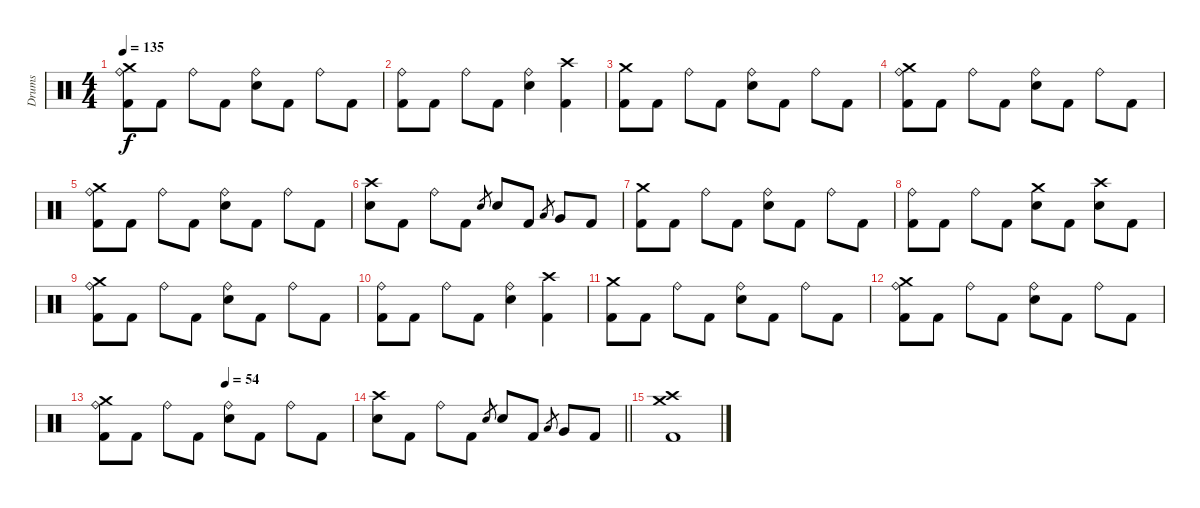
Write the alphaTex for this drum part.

\track ("Drums" "Drums") {instrument percussion}
\staff {score}
\articulation defaults
\ts (4 4)
\tempo 135
\clef neutral
\ks c
("Crash medium (hit)" "Ride (bell)" "Kick (hit) 2").8{dy f} "Kick (hit) 2".8 "Ride (bell)".8 "Kick (hit) 2".8 ("Ride (bell)" "Snare (hit) 2").8 "Kick (hit) 2".8 "Ride (bell)".8 "Kick (hit) 2".8 |
("Ride (bell)" "Kick (hit) 2").8 "Kick (hit) 2".8 "Ride (bell)".8 "Kick (hit) 2".8 ("Ride (bell)" "Snare (hit) 2").4 ("Crash high (hit)" "Kick (hit) 2").4 |
("Crash medium (hit)" "Kick (hit) 2").8 "Kick (hit) 2".8 "Ride (bell)".8 "Kick (hit) 2".8 ("Ride (bell)" "Snare (hit) 2").8 "Kick (hit) 2".8 "Ride (bell)".8 "Kick (hit) 2".8 |
("Crash medium (hit)" "Ride (bell)" "Kick (hit) 2").8 "Kick (hit) 2".8 "Ride (bell)".8 "Kick (hit) 2".8 ("Ride (bell)" "Snare (hit) 2").8 "Kick (hit) 2".8 "Ride (bell)".8 "Kick (hit) 2".8 |
("Crash medium (hit)" "Ride (bell)" "Kick (hit) 2").8 "Kick (hit) 2".8 "Ride (bell)".8 "Kick (hit) 2".8 ("Ride (bell)" "Snare (hit) 2").8 "Kick (hit) 2".8 "Ride (bell)".8 "Kick (hit) 2".8 |
("Crash high (hit)" "Snare (hit) 2").8 "Kick (hit) 2".8 "Ride (bell)".8 "Kick (hit) 2".8 "Snare (hit) 2".8{gr} "Snare (hit) 2".8 "Kick (hit) 2".8 "Low Tom (hit)".8{gr} "Very Low Tom (hit)".8 "Kick (hit) 2".8 |
("Crash medium (hit)" "Kick (hit) 2").8 "Kick (hit) 2".8 "Ride (bell)".8 "Kick (hit) 2".8 ("Ride (bell)" "Snare (hit) 2").8 "Kick (hit) 2".8 "Ride (bell)".8 "Kick (hit) 2".8 |
("Ride (bell)" "Kick (hit) 2").8 "Kick (hit) 2".8 "Ride (bell)".8 "Kick (hit) 2".8 ("Crash medium (hit)" "Snare (hit) 2").8 "Kick (hit) 2".8 ("Crash high (hit)" "Snare (hit) 2").8 "Kick (hit) 2".8 |
("Crash medium (hit)" "Ride (bell)" "Kick (hit) 2").8 "Kick (hit) 2".8 "Ride (bell)".8 "Kick (hit) 2".8 ("Ride (bell)" "Snare (hit) 2").8 "Kick (hit) 2".8 "Ride (bell)".8 "Kick (hit) 2".8 |
("Ride (bell)" "Kick (hit) 2").8 "Kick (hit) 2".8 "Ride (bell)".8 "Kick (hit) 2".8 ("Ride (bell)" "Snare (hit) 2").4 ("Crash high (hit)" "Kick (hit) 2").4 |
("Crash medium (hit)" "Kick (hit) 2").8 "Kick (hit) 2".8 "Ride (bell)".8 "Kick (hit) 2".8 ("Ride (bell)" "Snare (hit) 2").8 "Kick (hit) 2".8 "Ride (bell)".8 "Kick (hit) 2".8 |
("Crash medium (hit)" "Ride (bell)" "Kick (hit) 2").8 "Kick (hit) 2".8 "Ride (bell)".8 "Kick (hit) 2".8 ("Ride (bell)" "Snare (hit) 2").8 "Kick (hit) 2".8 "Ride (bell)".8 "Kick (hit) 2".8 |
\tempo (54 0.5)
("Crash medium (hit)" "Ride (bell)" "Kick (hit) 2").8 "Kick (hit) 2".8 "Ride (bell)".8 "Kick (hit) 2".8 ("Ride (bell)" "Snare (hit) 2").8 "Kick (hit) 2".8 "Ride (bell)".8 "Kick (hit) 2".8 |
\barLineRight lightlight
("Crash high (hit)" "Snare (hit) 2").8 "Kick (hit) 2".8 "Ride (bell)".8 "Kick (hit) 2".8 "Snare (hit) 2".8{gr} "Snare (hit) 2".8 "Kick (hit) 2".8 "Low Tom (hit)".8{gr} "Very Low Tom (hit)".8 "Kick (hit) 2".8 |
("Crash high (hit)" "Crash medium (hit)" "Kick (hit) 2").1
